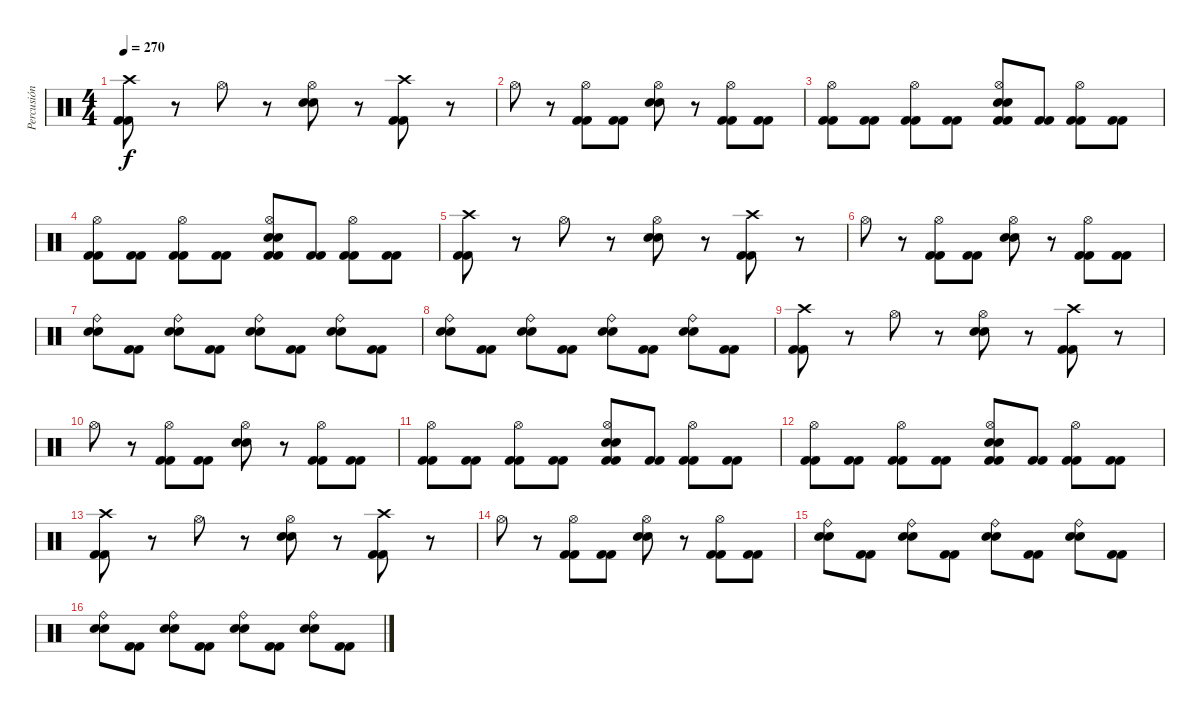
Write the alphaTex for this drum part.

\track ("Percusión" "Percusión") {instrument percussion}
\staff {score}
\articulation defaults
\ts (4 4)
\tempo 270
\clef neutral
\ks c
("Kick (hit) 2" "Kick (hit) 2" "Crash high (hit)").8{dy f} r.8 "Hi-Hat (open)".8 r.8 ("Electric Snare (hit)" "Electric Snare (hit)" "Hi-Hat (open)").8 r.8 ("Kick (hit) 2" "Kick (hit) 2" "Crash high (hit)").8 r.8 |
"Hi-Hat (open)".8 r.8 ("Kick (hit) 2" "Kick (hit) 2" "Hi-Hat (open)").8 ("Kick (hit) 2" "Kick (hit) 2").8 ("Electric Snare (hit)" "Electric Snare (hit)" "Hi-Hat (open)").8 r.8 ("Kick (hit) 2" "Kick (hit) 2" "Hi-Hat (open)").8 ("Kick (hit) 2" "Kick (hit) 2").8 |
("Kick (hit) 2" "Kick (hit) 2" "Hi-Hat (open)").8 ("Kick (hit) 2" "Kick (hit) 2").8 ("Kick (hit) 2" "Kick (hit) 2" "Hi-Hat (open)").8 ("Kick (hit) 2" "Kick (hit) 2").8 ("Kick (hit) 2" "Kick (hit) 2" "Electric Snare (hit)" "Electric Snare (hit)" "Hi-Hat (open)").8 ("Kick (hit) 2" "Kick (hit) 2").8 ("Kick (hit) 2" "Kick (hit) 2" "Hi-Hat (open)").8 ("Kick (hit) 2" "Kick (hit) 2").8 |
("Kick (hit) 2" "Kick (hit) 2" "Hi-Hat (open)").8 ("Kick (hit) 2" "Kick (hit) 2").8 ("Kick (hit) 2" "Kick (hit) 2" "Hi-Hat (open)").8 ("Kick (hit) 2" "Kick (hit) 2").8 ("Kick (hit) 2" "Kick (hit) 2" "Electric Snare (hit)" "Electric Snare (hit)" "Hi-Hat (open)").8 ("Kick (hit) 2" "Kick (hit) 2").8 ("Kick (hit) 2" "Kick (hit) 2" "Hi-Hat (open)").8 ("Kick (hit) 2" "Kick (hit) 2").8 |
("Kick (hit) 2" "Kick (hit) 2" "Crash high (hit)").8 r.8 "Hi-Hat (open)".8 r.8 ("Electric Snare (hit)" "Electric Snare (hit)" "Hi-Hat (open)").8 r.8 ("Kick (hit) 2" "Kick (hit) 2" "Crash high (hit)").8 r.8 |
"Hi-Hat (open)".8 r.8 ("Kick (hit) 2" "Kick (hit) 2" "Hi-Hat (open)").8 ("Kick (hit) 2" "Kick (hit) 2").8 ("Electric Snare (hit)" "Electric Snare (hit)" "Hi-Hat (open)").8 r.8 ("Kick (hit) 2" "Kick (hit) 2" "Hi-Hat (open)").8 ("Kick (hit) 2" "Kick (hit) 2").8 |
("Electric Snare (hit)" "Electric Snare (hit)" "Ride (bell)").8 ("Kick (hit) 2" "Kick (hit) 2").8 ("Electric Snare (hit)" "Electric Snare (hit)" "Ride (bell)").8 ("Kick (hit) 2" "Kick (hit) 2").8 ("Electric Snare (hit)" "Electric Snare (hit)" "Ride (bell)").8 ("Kick (hit) 2" "Kick (hit) 2").8 ("Electric Snare (hit)" "Electric Snare (hit)" "Ride (bell)").8 ("Kick (hit) 2" "Kick (hit) 2").8 |
("Electric Snare (hit)" "Electric Snare (hit)" "Ride (bell)").8 ("Kick (hit) 2" "Kick (hit) 2").8 ("Electric Snare (hit)" "Electric Snare (hit)" "Ride (bell)").8 ("Kick (hit) 2" "Kick (hit) 2").8 ("Electric Snare (hit)" "Electric Snare (hit)" "Ride (bell)").8 ("Kick (hit) 2" "Kick (hit) 2").8 ("Electric Snare (hit)" "Electric Snare (hit)" "Ride (bell)").8 ("Kick (hit) 2" "Kick (hit) 2").8 |
("Kick (hit) 2" "Kick (hit) 2" "Crash high (hit)").8 r.8 "Hi-Hat (open)".8 r.8 ("Electric Snare (hit)" "Electric Snare (hit)" "Hi-Hat (open)").8 r.8 ("Kick (hit) 2" "Kick (hit) 2" "Crash high (hit)").8 r.8 |
"Hi-Hat (open)".8 r.8 ("Kick (hit) 2" "Kick (hit) 2" "Hi-Hat (open)").8 ("Kick (hit) 2" "Kick (hit) 2").8 ("Electric Snare (hit)" "Electric Snare (hit)" "Hi-Hat (open)").8 r.8 ("Kick (hit) 2" "Kick (hit) 2" "Hi-Hat (open)").8 ("Kick (hit) 2" "Kick (hit) 2").8 |
("Kick (hit) 2" "Kick (hit) 2" "Hi-Hat (open)").8 ("Kick (hit) 2" "Kick (hit) 2").8 ("Kick (hit) 2" "Kick (hit) 2" "Hi-Hat (open)").8 ("Kick (hit) 2" "Kick (hit) 2").8 ("Kick (hit) 2" "Kick (hit) 2" "Electric Snare (hit)" "Electric Snare (hit)" "Hi-Hat (open)").8 ("Kick (hit) 2" "Kick (hit) 2").8 ("Kick (hit) 2" "Kick (hit) 2" "Hi-Hat (open)").8 ("Kick (hit) 2" "Kick (hit) 2").8 |
("Kick (hit) 2" "Kick (hit) 2" "Hi-Hat (open)").8 ("Kick (hit) 2" "Kick (hit) 2").8 ("Kick (hit) 2" "Kick (hit) 2" "Hi-Hat (open)").8 ("Kick (hit) 2" "Kick (hit) 2").8 ("Kick (hit) 2" "Kick (hit) 2" "Electric Snare (hit)" "Electric Snare (hit)" "Hi-Hat (open)").8 ("Kick (hit) 2" "Kick (hit) 2").8 ("Kick (hit) 2" "Kick (hit) 2" "Hi-Hat (open)").8 ("Kick (hit) 2" "Kick (hit) 2").8 |
("Kick (hit) 2" "Kick (hit) 2" "Crash high (hit)").8 r.8 "Hi-Hat (open)".8 r.8 ("Electric Snare (hit)" "Electric Snare (hit)" "Hi-Hat (open)").8 r.8 ("Kick (hit) 2" "Kick (hit) 2" "Crash high (hit)").8 r.8 |
"Hi-Hat (open)".8 r.8 ("Kick (hit) 2" "Kick (hit) 2" "Hi-Hat (open)").8 ("Kick (hit) 2" "Kick (hit) 2").8 ("Electric Snare (hit)" "Electric Snare (hit)" "Hi-Hat (open)").8 r.8 ("Kick (hit) 2" "Kick (hit) 2" "Hi-Hat (open)").8 ("Kick (hit) 2" "Kick (hit) 2").8 |
("Electric Snare (hit)" "Electric Snare (hit)" "Ride (bell)").8 ("Kick (hit) 2" "Kick (hit) 2").8 ("Electric Snare (hit)" "Electric Snare (hit)" "Ride (bell)").8 ("Kick (hit) 2" "Kick (hit) 2").8 ("Electric Snare (hit)" "Electric Snare (hit)" "Ride (bell)").8 ("Kick (hit) 2" "Kick (hit) 2").8 ("Electric Snare (hit)" "Electric Snare (hit)" "Ride (bell)").8 ("Kick (hit) 2" "Kick (hit) 2").8 |
("Electric Snare (hit)" "Electric Snare (hit)" "Ride (bell)").8 ("Kick (hit) 2" "Kick (hit) 2").8 ("Electric Snare (hit)" "Electric Snare (hit)" "Ride (bell)").8 ("Kick (hit) 2" "Kick (hit) 2").8 ("Electric Snare (hit)" "Electric Snare (hit)" "Ride (bell)").8 ("Kick (hit) 2" "Kick (hit) 2").8 ("Electric Snare (hit)" "Electric Snare (hit)" "Ride (bell)").8 ("Kick (hit) 2" "Kick (hit) 2").8
